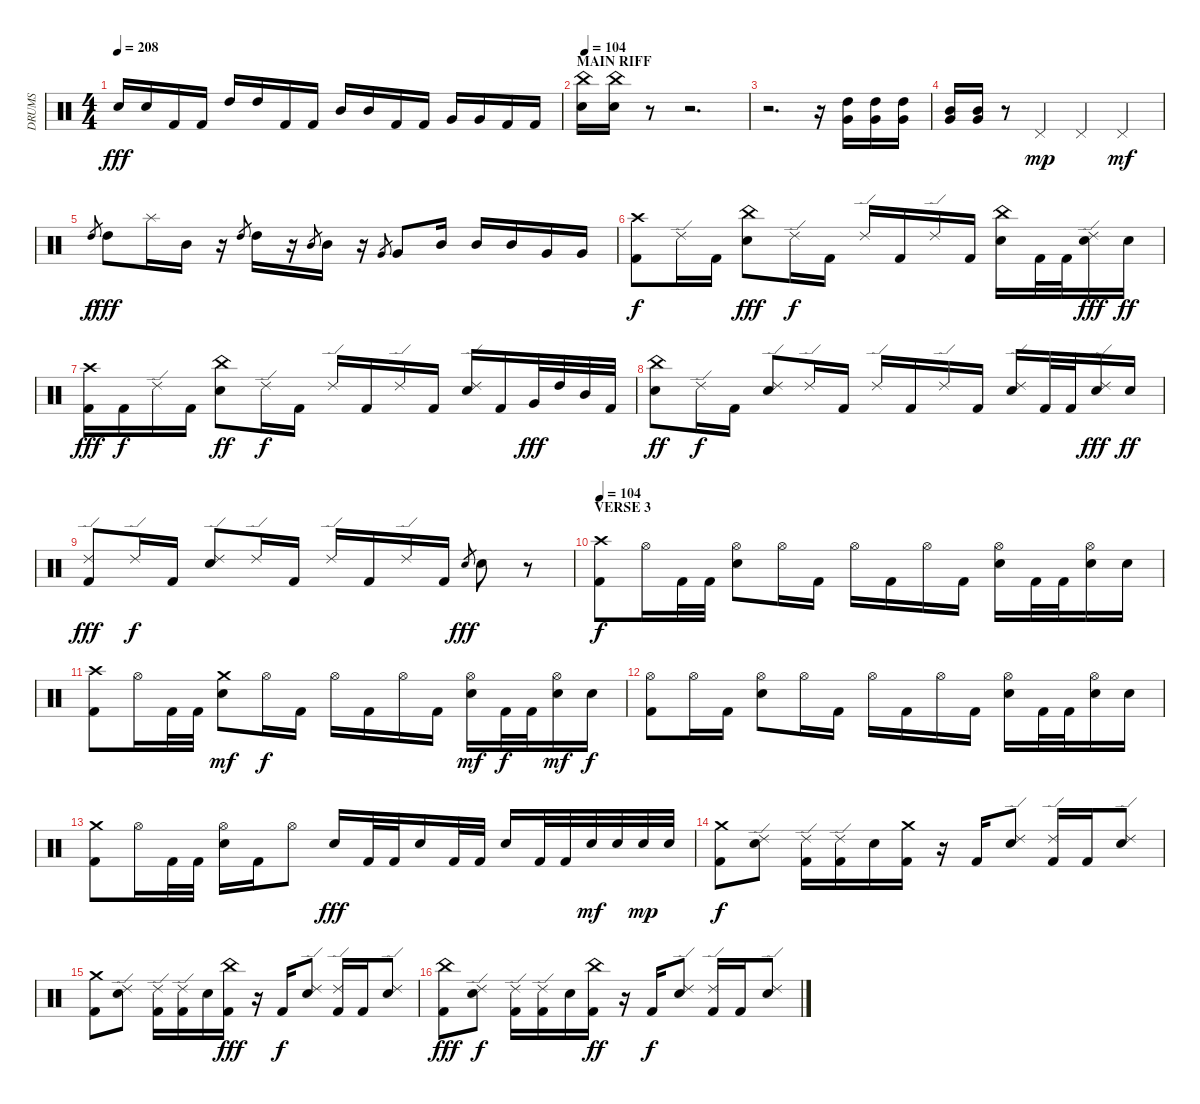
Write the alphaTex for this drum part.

\track ("DRUMS" "DRUMS") {instrument percussion}
\staff {score}
\articulation defaults
\ts (4 4)
\tempo 208
\clef neutral
\ks c "Electric Snare (hit)".16{dy fff} "Electric Snare (hit)".16 "Kick (hit) 2".16 "Kick (hit) 2".16 "High Tom (hit)".16 "High Tom (hit)".16 "Kick (hit) 2".16 "Kick (hit) 2".16 "Mid Tom (hit)".16 "Mid Tom (hit)".16 "Kick (hit) 2".16 "Kick (hit) 2".16 "Very Low Tom (hit)".16 "Very Low Tom (hit)".16 "Kick (hit) 2".16 "Kick (hit) 2".16
|
\section ("" "MAIN RIFF")
\tempo 104
("China (hit)" "Electric Snare (hit)").16 ("China (hit)" "Electric Snare (hit)").16 r.8 r.2{d} |
r.2{d} r.16 ("High Tom (hit)" "Very Low Tom (hit)").16 ("High Tom (hit)" "Very Low Tom (hit)").16 ("High Tom (hit)" "Very Low Tom (hit)").16 |
("Mid Tom (hit)" "Very Low Tom (hit)").16 ("Mid Tom (hit)" "Very Low Tom (hit)").16 r.8 "Pedal Hi-Hat (hit)".4{dy mp} "Pedal Hi-Hat (hit)".4 "Pedal Hi-Hat (hit)".4{dy mf} |
"High Tom (hit)"{h}.8{gr dy f} "High Tom (hit)".8{dy fff} "Splash (hit)".16 "Mid Tom (hit)".16 r.16 "High Tom (hit)"{h}.8{gr} "High Tom (hit)".16 r.16 "Mid Tom (hit)"{h}.8{gr} "Mid Tom (hit)".16 r.16 "Very Low Tom (hit)"{h}.8{gr} "Very Low Tom (hit)".8 "Mid Tom (hit)".16 "Mid Tom (hit)".16 "Mid Tom (hit)".16 "Very Low Tom (hit)".16 "Very Low Tom (hit)".16 |
("Crash high (hit)" "Kick (hit) 2").8{dy f} "Ride (edge) 2".16 "Kick (hit) 2".16 ("China (hit)" "Electric Snare (hit)").8{dy fff} "Ride (edge) 2".16{dy f} "Kick (hit) 2".16 "Ride (edge) 2".16 "Kick (hit) 2".16 "Ride (edge) 2".16 "Kick (hit) 2".16 ("China (hit)" "Electric Snare (hit)").16 "Kick (hit) 2".32 "Kick (hit) 2".32 ("Ride (edge) 2" "Electric Snare (hit)").16{dy fff} "Electric Snare (hit)".16{dy ff} |
("Crash high (hit)" "Kick (hit) 2").16{dy fff} "Kick (hit) 2".16{dy f} "Ride (edge) 2".16 "Kick (hit) 2".16 ("China (hit)" "Electric Snare (hit)").8{dy ff} "Ride (edge) 2".16{dy f} "Kick (hit) 2".16 "Ride (edge) 2".16 "Kick (hit) 2".16 "Ride (edge) 2".16 "Kick (hit) 2".16 ("Ride (edge) 2" "Electric Snare (hit)").16 "Kick (hit) 2".16 "Very Low Tom (hit)".32{dy fff} "High Tom (hit)".32 "Mid Tom (hit)".32 "Kick (hit) 2".32 |
("China (hit)" "Electric Snare (hit)").8{dy ff} "Ride (edge) 2".16{dy f} "Kick (hit) 2".16 ("Ride (edge) 2" "Electric Snare (hit)").8 "Ride (edge) 2".16 "Kick (hit) 2".16 "Ride (edge) 2".16 "Kick (hit) 2".16 "Ride (edge) 2".16 "Kick (hit) 2".16 ("Ride (edge) 2" "Electric Snare (hit)").16 "Kick (hit) 2".32 "Kick (hit) 2".32 ("Ride (edge) 2" "Electric Snare (hit)").16{dy fff} "Electric Snare (hit)".16{dy ff} |
("Ride (edge) 2" "Kick (hit) 2").8{dy fff} "Ride (edge) 2".16{dy f} "Kick (hit) 2".16 ("Ride (edge) 2" "Electric Snare (hit)").8 "Ride (edge) 2".16 "Kick (hit) 2".16 "Ride (edge) 2".16 "Kick (hit) 2".16 "Ride (edge) 2".16 "Kick (hit) 2".16 "Electric Snare (hit)"{h}.8{gr dy fff} "Electric Snare (hit)".8 r.8 |
\section ("" "VERSE 3")
\tempo 104
("Crash high (hit)" "Kick (hit) 2").8{dy f} "Hi-Hat (open)".16 "Kick (hit) 2".32 "Kick (hit) 2".32 ("Hi-Hat (open)" "Electric Snare (hit)").8 "Hi-Hat (open)".16 "Kick (hit) 2".16 "Hi-Hat (open)".16 "Kick (hit) 2".16 "Hi-Hat (open)".16 "Kick (hit) 2".16 ("Hi-Hat (open)" "Electric Snare (hit)").16 "Kick (hit) 2".32 "Kick (hit) 2".32 ("Hi-Hat (open)" "Electric Snare (hit)").16 "Electric Snare (hit)".16 |
("Crash high (hit)" "Kick (hit) 2").8 "Hi-Hat (open)".16 "Kick (hit) 2".32 "Kick (hit) 2".32 ("Crash medium (hit)" "Electric Snare (hit)").8{dy mf} "Hi-Hat (open)".16{dy f} "Kick (hit) 2".16 "Hi-Hat (open)".16 "Kick (hit) 2".16 "Hi-Hat (open)".16 "Kick (hit) 2".16 ("Hi-Hat (open)" "Electric Snare (hit)").16{dy mf} "Kick (hit) 2".32{dy f} "Kick (hit) 2".32 ("Hi-Hat (open)" "Electric Snare (hit)").16{dy mf} "Electric Snare (hit)".16{dy f} |
("Hi-Hat (open)" "Kick (hit) 2").8 "Hi-Hat (open)".16 "Kick (hit) 2".16 ("Hi-Hat (open)" "Electric Snare (hit)").8 "Hi-Hat (open)".16 "Kick (hit) 2".16 "Hi-Hat (open)".16 "Kick (hit) 2".16 "Hi-Hat (open)".16 "Kick (hit) 2".16 ("Hi-Hat (open)" "Electric Snare (hit)").16 "Kick (hit) 2".32 "Kick (hit) 2".32 ("Hi-Hat (open)" "Electric Snare (hit)").16 "Electric Snare (hit)".16 |
("Crash medium (hit)" "Kick (hit) 2").8 "Hi-Hat (open)".16 "Kick (hit) 2".32 "Kick (hit) 2".32 ("Hi-Hat (open)" "Electric Snare (hit)").16 "Kick (hit) 2".16 "Hi-Hat (open)".8 "Electric Snare (hit)".16{dy fff} "Kick (hit) 2".32 "Kick (hit) 2".32 "Electric Snare (hit)".16 "Kick (hit) 2".32 "Kick (hit) 2".32 "Electric Snare (hit)".16 "Kick (hit) 2".32 "Kick (hit) 2".32 "Electric Snare (hit)".32{dy mf} "Electric Snare (hit)".32 "Electric Snare (hit)".32{dy mp} "Electric Snare (hit)".32 |
("Crash medium (hit)" "Kick (hit) 2").8{dy f} ("Ride (edge) 2" "Electric Snare (hit)").8 ("Ride (edge) 2" "Kick (hit) 2").16 ("Ride (edge) 2" "Kick (hit) 2").16 "Electric Snare (hit)".16 ("Crash medium (hit)" "Kick (hit) 2").16 r.16 "Kick (hit) 2".16 ("Ride (edge) 2" "Electric Snare (hit)").8 ("Ride (edge) 2" "Kick (hit) 2").16 "Kick (hit) 2".16 ("Ride (edge) 2" "Electric Snare (hit)").8 |
("Crash medium (hit)" "Kick (hit) 2").8 ("Ride (edge) 2" "Electric Snare (hit)").8 ("Ride (edge) 2" "Kick (hit) 2").16 ("Ride (edge) 2" "Kick (hit) 2").16 "Electric Snare (hit)".16 ("China (hit)" "Kick (hit) 2").16{dy fff} r.16 "Kick (hit) 2".16{dy f} ("Ride (edge) 2" "Electric Snare (hit)").8 ("Ride (edge) 2" "Kick (hit) 2").16 "Kick (hit) 2".16 ("Ride (edge) 2" "Electric Snare (hit)").8 |
("China (hit)" "Kick (hit) 2").8{dy fff} ("Ride (edge) 2" "Electric Snare (hit)").8{dy f} ("Ride (edge) 2" "Kick (hit) 2").16 ("Ride (edge) 2" "Kick (hit) 2").16 "Electric Snare (hit)".16 ("China (hit)" "Kick (hit) 2").16{dy ff} r.16 "Kick (hit) 2".16{dy f} ("Ride (edge) 2" "Electric Snare (hit)").8 ("Ride (edge) 2" "Kick (hit) 2").16 "Kick (hit) 2".16 ("Ride (edge) 2" "Electric Snare (hit)").8
